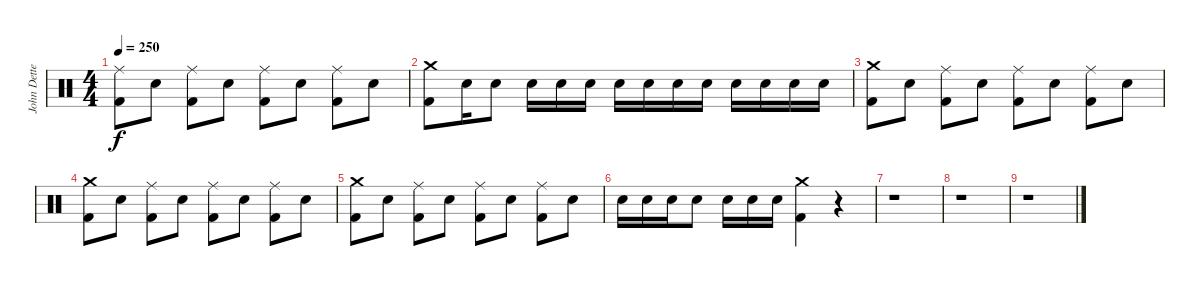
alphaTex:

\track ("John Dette" "John Dette") {instrument percussion}
\staff {score}
\articulation defaults
\ts (4 4)
\tempo 250
\clef neutral
\ks c
("Ride (middle)" "Kick (hit) 2").8{dy f} "Snare (hit) 2".8 ("Ride (middle)" "Kick (hit) 2").8 "Snare (hit) 2".8 ("Ride (middle)" "Kick (hit) 2").8 "Snare (hit) 2".8 ("Ride (middle)" "Kick (hit) 2").8 "Snare (hit) 2".8 |
("Crash medium (hit)" "Kick (hit) 2").8 "Snare (hit) 2".16 "Snare (hit) 2".8 "Snare (hit) 2".16 "Snare (hit) 2".16 "Snare (hit) 2".16 "Snare (hit) 2".16 "Snare (hit) 2".16 "Snare (hit) 2".16 "Snare (hit) 2".16 "Snare (hit) 2".16 "Snare (hit) 2".16 "Snare (hit) 2".16 "Snare (hit) 2".16 |
("Crash medium (hit)" "Kick (hit) 2").8 "Snare (hit) 2".8 ("Ride (middle)" "Kick (hit) 2").8 "Snare (hit) 2".8 ("Ride (middle)" "Kick (hit) 2").8 "Snare (hit) 2".8 ("Ride (middle)" "Kick (hit) 2").8 "Snare (hit) 2".8 |
("Crash medium (hit)" "Kick (hit) 2").8 "Snare (hit) 2".8 ("Ride (middle)" "Kick (hit) 2").8 "Snare (hit) 2".8 ("Ride (middle)" "Kick (hit) 2").8 "Snare (hit) 2".8 ("Ride (middle)" "Kick (hit) 2").8 "Snare (hit) 2".8 |
("Crash medium (hit)" "Kick (hit) 2").8 "Snare (hit) 2".8 ("Ride (middle)" "Kick (hit) 2").8 "Snare (hit) 2".8 ("Ride (middle)" "Kick (hit) 2").8 "Snare (hit) 2".8 ("Ride (middle)" "Kick (hit) 2").8 "Snare (hit) 2".8 |
"Snare (hit) 2".16 "Snare (hit) 2".16 "Snare (hit) 2".16 "Snare (hit) 2".8 "Snare (hit) 2".16 "Snare (hit) 2".16 "Snare (hit) 2".16 ("Crash medium (hit)" "Kick (hit) 2").4 r.4 |
r.1 |
r.1 |
r.1
